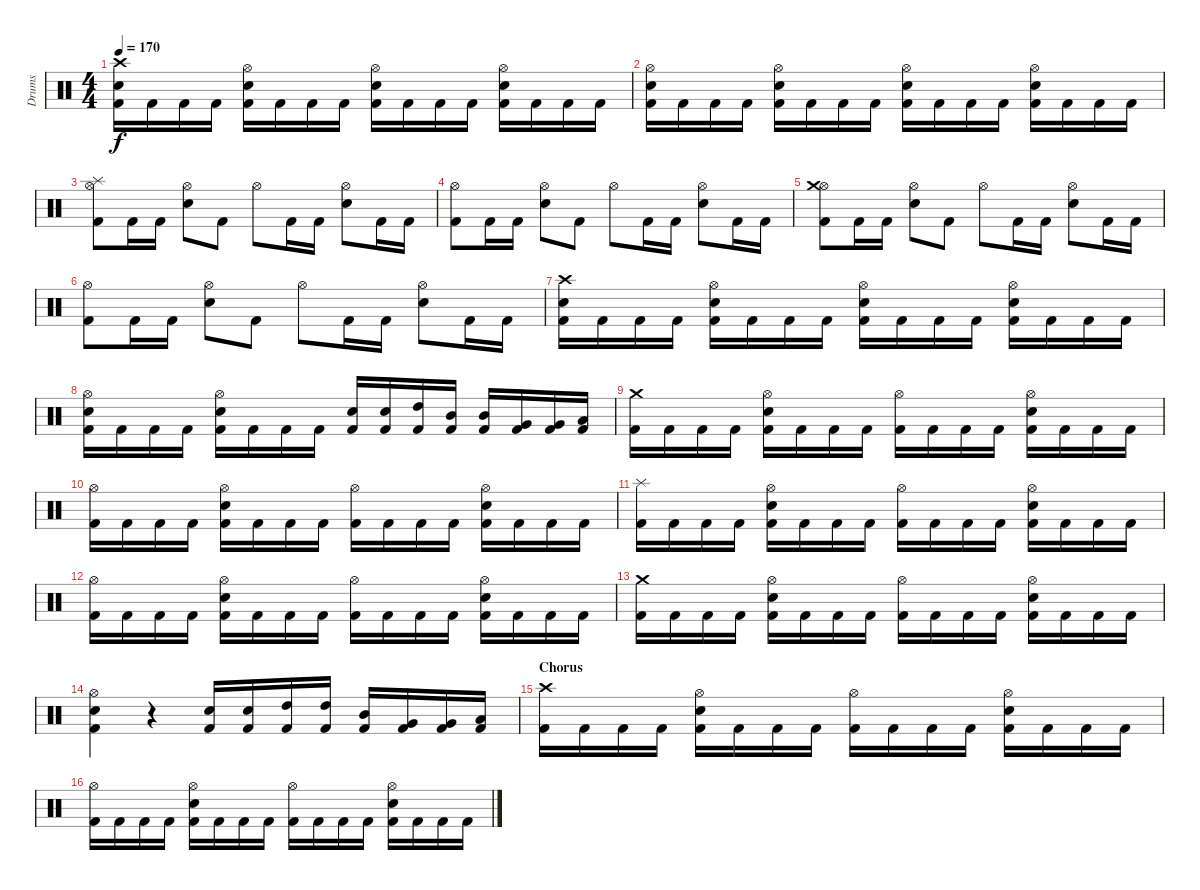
\track ("Drums" "Drums") {instrument percussion}
\staff {score}
\articulation defaults
\ts (4 4)
\tempo 170
\clef neutral
\ks c
("Kick (hit) 2" "Snare (hit) 2" "Crash high (hit)").16{dy f} "Kick (hit) 2".16 "Kick (hit) 2".16 "Kick (hit) 2".16 ("Kick (hit) 2" "Snare (hit) 2" "Hi-Hat (open)").16 "Kick (hit) 2".16 "Kick (hit) 2".16 "Kick (hit) 2".16 ("Kick (hit) 2" "Snare (hit) 2" "Hi-Hat (open)").16 "Kick (hit) 2".16 "Kick (hit) 2".16 "Kick (hit) 2".16 ("Kick (hit) 2" "Snare (hit) 2" "Hi-Hat (open)").16 "Kick (hit) 2".16 "Kick (hit) 2".16 "Kick (hit) 2".16 |
("Kick (hit) 2" "Snare (hit) 2" "Hi-Hat (open)").16 "Kick (hit) 2".16 "Kick (hit) 2".16 "Kick (hit) 2".16 ("Kick (hit) 2" "Snare (hit) 2" "Hi-Hat (open)").16 "Kick (hit) 2".16 "Kick (hit) 2".16 "Kick (hit) 2".16 ("Kick (hit) 2" "Snare (hit) 2" "Hi-Hat (open)").16 "Kick (hit) 2".16 "Kick (hit) 2".16 "Kick (hit) 2".16 ("Kick (hit) 2" "Snare (hit) 2" "Hi-Hat (open)").16 "Kick (hit) 2".16 "Kick (hit) 2".16 "Kick (hit) 2".16 |
("Kick (hit) 2" "Hi-Hat (open)" "Splash (hit)").8 "Kick (hit) 2".16 "Kick (hit) 2".16 ("Snare (hit) 2" "Hi-Hat (open)").8 "Kick (hit) 2".8 "Hi-Hat (open)".8 "Kick (hit) 2".16 "Kick (hit) 2".16 ("Snare (hit) 2" "Hi-Hat (open)").8 "Kick (hit) 2".16 "Kick (hit) 2".16 |
("Kick (hit) 2" "Hi-Hat (open)").8 "Kick (hit) 2".16 "Kick (hit) 2".16 ("Snare (hit) 2" "Hi-Hat (open)").8 "Kick (hit) 2".8 "Hi-Hat (open)".8 "Kick (hit) 2".16 "Kick (hit) 2".16 ("Snare (hit) 2" "Hi-Hat (open)").8 "Kick (hit) 2".16 "Kick (hit) 2".16 |
("Kick (hit) 2" "Hi-Hat (open)" "Crash medium (hit)").8 "Kick (hit) 2".16 "Kick (hit) 2".16 ("Snare (hit) 2" "Hi-Hat (open)").8 "Kick (hit) 2".8 "Hi-Hat (open)".8 "Kick (hit) 2".16 "Kick (hit) 2".16 ("Snare (hit) 2" "Hi-Hat (open)").8 "Kick (hit) 2".16 "Kick (hit) 2".16 |
("Kick (hit) 2" "Hi-Hat (open)").8 "Kick (hit) 2".16 "Kick (hit) 2".16 ("Snare (hit) 2" "Hi-Hat (open)").8 "Kick (hit) 2".8 "Hi-Hat (open)".8 "Kick (hit) 2".16 "Kick (hit) 2".16 ("Snare (hit) 2" "Hi-Hat (open)").8 "Kick (hit) 2".16 "Kick (hit) 2".16 |
("Kick (hit) 2" "Snare (hit) 2" "Crash high (hit)").16 "Kick (hit) 2".16 "Kick (hit) 2".16 "Kick (hit) 2".16 ("Kick (hit) 2" "Snare (hit) 2" "Hi-Hat (open)").16 "Kick (hit) 2".16 "Kick (hit) 2".16 "Kick (hit) 2".16 ("Kick (hit) 2" "Snare (hit) 2" "Hi-Hat (open)").16 "Kick (hit) 2".16 "Kick (hit) 2".16 "Kick (hit) 2".16 ("Kick (hit) 2" "Snare (hit) 2" "Hi-Hat (open)").16 "Kick (hit) 2".16 "Kick (hit) 2".16 "Kick (hit) 2".16 |
("Kick (hit) 2" "Snare (hit) 2" "Hi-Hat (open)").16 "Kick (hit) 2".16 "Kick (hit) 2".16 "Kick (hit) 2".16 ("Kick (hit) 2" "Snare (hit) 2" "Hi-Hat (open)").16 "Kick (hit) 2".16 "Kick (hit) 2".16 "Kick (hit) 2".16 ("Kick (hit) 2" "Snare (hit) 2").16 ("Kick (hit) 2" "Snare (hit) 2").16 ("Kick (hit) 2" "High Tom (hit)").16 ("Kick (hit) 2" "Mid Tom (hit)").16 ("Kick (hit) 2" "Mid Tom (hit)").16 ("Kick (hit) 2" "Very Low Tom (hit)").16 ("Kick (hit) 2" "Very Low Tom (hit)").16 ("Kick (hit) 2" "Low Floor Tom (hit)").16 |
\section ("" "")
("Kick (hit) 2" "Crash medium (hit)").16 "Kick (hit) 2".16 "Kick (hit) 2".16 "Kick (hit) 2".16 ("Kick (hit) 2" "Snare (hit) 2" "Hi-Hat (open)").16 "Kick (hit) 2".16 "Kick (hit) 2".16 "Kick (hit) 2".16 ("Kick (hit) 2" "Hi-Hat (open)").16 "Kick (hit) 2".16 "Kick (hit) 2".16 "Kick (hit) 2".16 ("Kick (hit) 2" "Snare (hit) 2" "Hi-Hat (open)").16 "Kick (hit) 2".16 "Kick (hit) 2".16 "Kick (hit) 2".16 |
("Kick (hit) 2" "Hi-Hat (open)").16 "Kick (hit) 2".16 "Kick (hit) 2".16 "Kick (hit) 2".16 ("Kick (hit) 2" "Snare (hit) 2" "Hi-Hat (open)").16 "Kick (hit) 2".16 "Kick (hit) 2".16 "Kick (hit) 2".16 ("Kick (hit) 2" "Hi-Hat (open)").16 "Kick (hit) 2".16 "Kick (hit) 2".16 "Kick (hit) 2".16 ("Kick (hit) 2" "Snare (hit) 2" "Hi-Hat (open)").16 "Kick (hit) 2".16 "Kick (hit) 2".16 "Kick (hit) 2".16 |
("Kick (hit) 2" "Splash (hit)").16 "Kick (hit) 2".16 "Kick (hit) 2".16 "Kick (hit) 2".16 ("Kick (hit) 2" "Snare (hit) 2" "Hi-Hat (open)").16 "Kick (hit) 2".16 "Kick (hit) 2".16 "Kick (hit) 2".16 ("Kick (hit) 2" "Hi-Hat (open)").16 "Kick (hit) 2".16 "Kick (hit) 2".16 "Kick (hit) 2".16 ("Kick (hit) 2" "Snare (hit) 2" "Hi-Hat (open)").16 "Kick (hit) 2".16 "Kick (hit) 2".16 "Kick (hit) 2".16 |
("Kick (hit) 2" "Hi-Hat (open)").16 "Kick (hit) 2".16 "Kick (hit) 2".16 "Kick (hit) 2".16 ("Kick (hit) 2" "Snare (hit) 2" "Hi-Hat (open)").16 "Kick (hit) 2".16 "Kick (hit) 2".16 "Kick (hit) 2".16 ("Kick (hit) 2" "Hi-Hat (open)").16 "Kick (hit) 2".16 "Kick (hit) 2".16 "Kick (hit) 2".16 ("Kick (hit) 2" "Snare (hit) 2" "Hi-Hat (open)").16 "Kick (hit) 2".16 "Kick (hit) 2".16 "Kick (hit) 2".16 |
("Kick (hit) 2" "Crash medium (hit)").16 "Kick (hit) 2".16 "Kick (hit) 2".16 "Kick (hit) 2".16 ("Kick (hit) 2" "Snare (hit) 2" "Hi-Hat (open)").16 "Kick (hit) 2".16 "Kick (hit) 2".16 "Kick (hit) 2".16 ("Kick (hit) 2" "Hi-Hat (open)").16 "Kick (hit) 2".16 "Kick (hit) 2".16 "Kick (hit) 2".16 ("Kick (hit) 2" "Snare (hit) 2" "Hi-Hat (open)").16 "Kick (hit) 2".16 "Kick (hit) 2".16 "Kick (hit) 2".16 |
("Kick (hit) 2" "Snare (hit) 2" "Hi-Hat (open)").4 r.4 ("Kick (hit) 2" "Snare (hit) 2").16 ("Kick (hit) 2" "Snare (hit) 2").16 ("Kick (hit) 2" "High Tom (hit)").16 ("Kick (hit) 2" "High Tom (hit)").16 ("Kick (hit) 2" "Mid Tom (hit)").16 ("Kick (hit) 2" "Very Low Tom (hit)").16 ("Kick (hit) 2" "Very Low Tom (hit)").16 ("Kick (hit) 2" "Low Floor Tom (hit)").16 |
\section ("" "Chorus")
("Kick (hit) 2" "Crash high (hit)").16 "Kick (hit) 2".16 "Kick (hit) 2".16 "Kick (hit) 2".16 ("Kick (hit) 2" "Snare (hit) 2" "Hi-Hat (open)").16 "Kick (hit) 2".16 "Kick (hit) 2".16 "Kick (hit) 2".16 ("Kick (hit) 2" "Hi-Hat (open)").16 "Kick (hit) 2".16 "Kick (hit) 2".16 "Kick (hit) 2".16 ("Kick (hit) 2" "Snare (hit) 2" "Hi-Hat (open)").16 "Kick (hit) 2".16 "Kick (hit) 2".16 "Kick (hit) 2".16 |
("Kick (hit) 2" "Hi-Hat (open)").16 "Kick (hit) 2".16 "Kick (hit) 2".16 "Kick (hit) 2".16 ("Kick (hit) 2" "Snare (hit) 2" "Hi-Hat (open)").16 "Kick (hit) 2".16 "Kick (hit) 2".16 "Kick (hit) 2".16 ("Kick (hit) 2" "Hi-Hat (open)").16 "Kick (hit) 2".16 "Kick (hit) 2".16 "Kick (hit) 2".16 ("Kick (hit) 2" "Snare (hit) 2" "Hi-Hat (open)").16 "Kick (hit) 2".16 "Kick (hit) 2".16 "Kick (hit) 2".16
